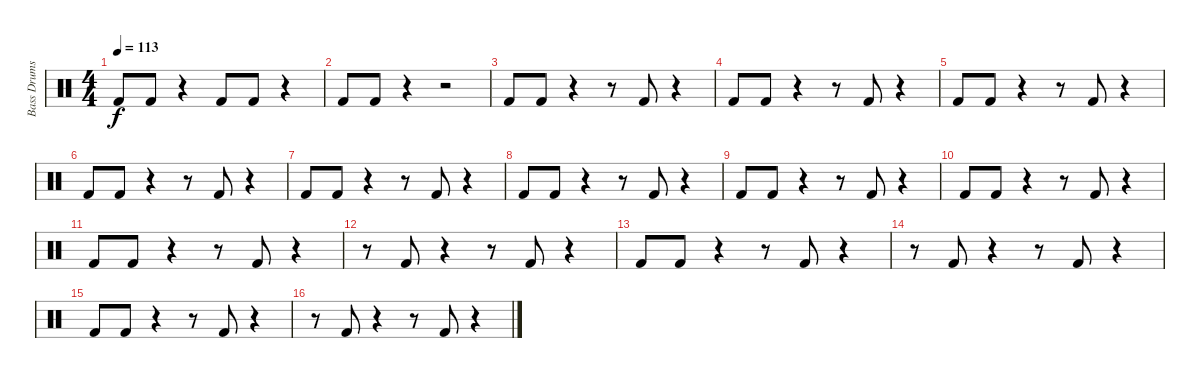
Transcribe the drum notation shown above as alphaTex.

\track ("Bass Drums" "Bass Drums") {instrument percussion}
\staff {score}
\articulation defaults
\ts (4 4)
\tempo 113
\clef neutral
\ks c "Kick (hit) 2".8{dy f} "Kick (hit) 2".8
r.4 "Kick (hit) 2".8 "Kick (hit) 2".8 r.4 |
"Kick (hit) 2".8 "Kick (hit) 2".8 r.4 r.2 |
"Kick (hit) 2".8 "Kick (hit) 2".8 r.4 r.8 "Kick (hit) 2".8 r.4 |
"Kick (hit) 2".8 "Kick (hit) 2".8 r.4 r.8 "Kick (hit) 2".8 r.4 |
"Kick (hit) 2".8 "Kick (hit) 2".8 r.4 r.8 "Kick (hit) 2".8 r.4 |
"Kick (hit) 2".8 "Kick (hit) 2".8 r.4 r.8 "Kick (hit) 2".8 r.4 |
"Kick (hit) 2".8 "Kick (hit) 2".8 r.4 r.8 "Kick (hit) 2".8 r.4 |
"Kick (hit) 2".8 "Kick (hit) 2".8 r.4 r.8 "Kick (hit) 2".8 r.4 |
"Kick (hit) 2".8 "Kick (hit) 2".8 r.4 r.8 "Kick (hit) 2".8 r.4 |
"Kick (hit) 2".8 "Kick (hit) 2".8 r.4 r.8 "Kick (hit) 2".8 r.4 |
"Kick (hit) 2".8 "Kick (hit) 2".8 r.4 r.8 "Kick (hit) 2".8 r.4 |
r.8 "Kick (hit) 2".8 r.4 r.8 "Kick (hit) 2".8 r.4 |
"Kick (hit) 2".8 "Kick (hit) 2".8 r.4 r.8 "Kick (hit) 2".8 r.4 |
r.8 "Kick (hit) 2".8 r.4 r.8 "Kick (hit) 2".8 r.4 |
"Kick (hit) 2".8 "Kick (hit) 2".8 r.4 r.8 "Kick (hit) 2".8 r.4 |
r.8 "Kick (hit) 2".8 r.4 r.8 "Kick (hit) 2".8 r.4
